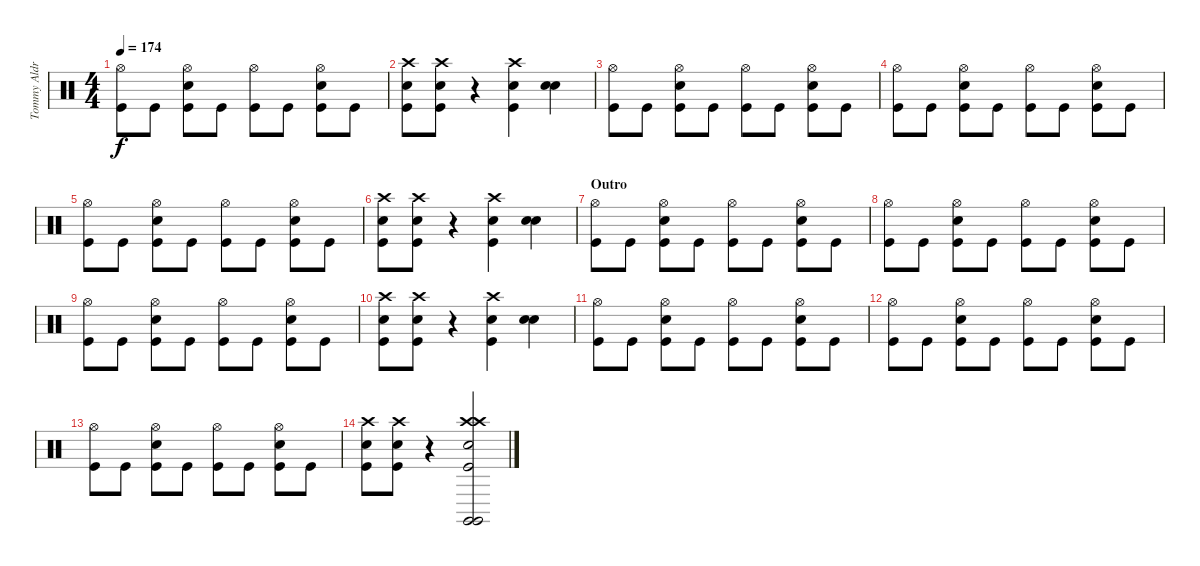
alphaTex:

\track ("Tommy Aldrige" "Tommy Aldr") {instrument percussion}
\staff {score}
\articulation defaults
\ts (4 4)
\tempo 174
\clef neutral
\ks c
("Hi-Hat (open)" "Kick (hit)").8{dy f} "Kick (hit)".8 ("Hi-Hat (open)" "Kick (hit)" "Snare (hit) 2").8 "Kick (hit)".8 ("Hi-Hat (open)" "Kick (hit)").8 "Kick (hit)".8 ("Hi-Hat (open)" "Kick (hit)" "Snare (hit) 2").8 "Kick (hit)".8 |
("Crash high (hit)" "Kick (hit)" "Snare (hit) 2").8 ("Crash high (hit)" "Kick (hit)" "Snare (hit) 2").8 r.4 ("Crash high (hit)" "Kick (hit)" "Snare (hit) 2").4 ("Snare (hit) 2" "Snare (hit) 2").4{bu 240} |
("Hi-Hat (open)" "Kick (hit)").8 "Kick (hit)".8 ("Hi-Hat (open)" "Kick (hit)" "Snare (hit) 2").8 "Kick (hit)".8 ("Hi-Hat (open)" "Kick (hit)").8 "Kick (hit)".8 ("Hi-Hat (open)" "Kick (hit)" "Snare (hit) 2").8 "Kick (hit)".8 |
("Hi-Hat (open)" "Kick (hit)").8 "Kick (hit)".8 ("Hi-Hat (open)" "Kick (hit)" "Snare (hit) 2").8 "Kick (hit)".8 ("Hi-Hat (open)" "Kick (hit)").8 "Kick (hit)".8 ("Hi-Hat (open)" "Kick (hit)" "Snare (hit) 2").8 "Kick (hit)".8 |
("Hi-Hat (open)" "Kick (hit)").8 "Kick (hit)".8 ("Hi-Hat (open)" "Kick (hit)" "Snare (hit) 2").8 "Kick (hit)".8 ("Hi-Hat (open)" "Kick (hit)").8 "Kick (hit)".8 ("Hi-Hat (open)" "Kick (hit)" "Snare (hit) 2").8 "Kick (hit)".8 |
("Crash high (hit)" "Kick (hit)" "Snare (hit) 2").8 ("Crash high (hit)" "Kick (hit)" "Snare (hit) 2").8 r.4 ("Crash high (hit)" "Kick (hit)" "Snare (hit) 2").4 ("Snare (hit) 2" "Snare (hit) 2").4{bu 240} |
\section ("" "Outro")
("Hi-Hat (open)" "Kick (hit)").8 "Kick (hit)".8 ("Hi-Hat (open)" "Kick (hit)" "Snare (hit) 2").8 "Kick (hit)".8 ("Hi-Hat (open)" "Kick (hit)").8 "Kick (hit)".8 ("Hi-Hat (open)" "Kick (hit)" "Snare (hit) 2").8 "Kick (hit)".8 |
("Hi-Hat (open)" "Kick (hit)").8 "Kick (hit)".8 ("Hi-Hat (open)" "Kick (hit)" "Snare (hit) 2").8 "Kick (hit)".8 ("Hi-Hat (open)" "Kick (hit)").8 "Kick (hit)".8 ("Hi-Hat (open)" "Kick (hit)" "Snare (hit) 2").8 "Kick (hit)".8 |
("Hi-Hat (open)" "Kick (hit)").8 "Kick (hit)".8 ("Hi-Hat (open)" "Kick (hit)" "Snare (hit) 2").8 "Kick (hit)".8 ("Hi-Hat (open)" "Kick (hit)").8 "Kick (hit)".8 ("Hi-Hat (open)" "Kick (hit)" "Snare (hit) 2").8 "Kick (hit)".8 |
("Crash high (hit)" "Kick (hit)" "Snare (hit) 2").8 ("Crash high (hit)" "Kick (hit)" "Snare (hit) 2").8 r.4 ("Crash high (hit)" "Kick (hit)" "Snare (hit) 2").4 ("Snare (hit) 2" "Snare (hit) 2").4{bu 240} |
("Hi-Hat (open)" "Kick (hit)").8 "Kick (hit)".8 ("Hi-Hat (open)" "Kick (hit)" "Snare (hit) 2").8 "Kick (hit)".8 ("Hi-Hat (open)" "Kick (hit)").8 "Kick (hit)".8 ("Hi-Hat (open)" "Kick (hit)" "Snare (hit) 2").8 "Kick (hit)".8 |
("Hi-Hat (open)" "Kick (hit)").8 "Kick (hit)".8 ("Hi-Hat (open)" "Kick (hit)" "Snare (hit) 2").8 "Kick (hit)".8 ("Hi-Hat (open)" "Kick (hit)").8 "Kick (hit)".8 ("Hi-Hat (open)" "Kick (hit)" "Snare (hit) 2").8 "Kick (hit)".8 |
("Hi-Hat (open)" "Kick (hit)").8 "Kick (hit)".8 ("Hi-Hat (open)" "Kick (hit)" "Snare (hit) 2").8 "Kick (hit)".8 ("Hi-Hat (open)" "Kick (hit)").8 "Kick (hit)".8 ("Hi-Hat (open)" "Kick (hit)" "Snare (hit) 2").8 "Kick (hit)".8 |
("Crash high (hit)" "Kick (hit)" "Snare (hit) 2").8 ("Crash high (hit)" "Kick (hit)" "Snare (hit) 2").8 r.4 ("Crash high (hit)" "Kick (hit)" "Snare (hit) 2" "Claves (hit)" "Crash high (hit)" "Claves (hit)").2
